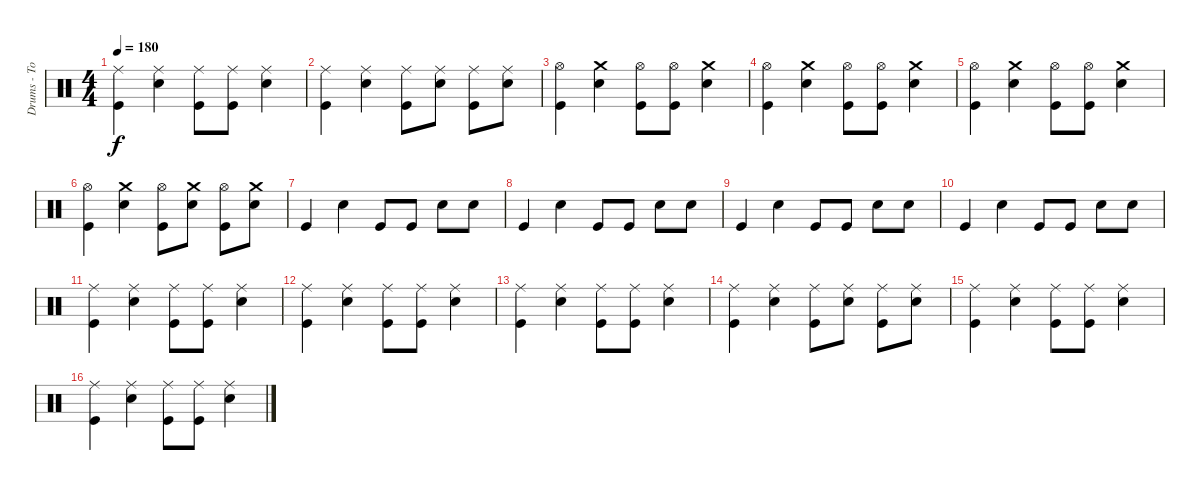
\track ("Drums - Tom" "Drums - To") {instrument percussion}
\staff {score}
\articulation defaults
\ts (4 4)
\tempo 180
\clef neutral
\ks c
("Ride (middle)" "Kick (hit)").4{dy f} ("Ride (middle)" "Snare (hit) 2").4 ("Ride (middle)" "Kick (hit)").8 ("Ride (middle)" "Kick (hit)").8 ("Ride (middle)" "Snare (hit) 2").4 |
("Ride (middle)" "Kick (hit)").4 ("Ride (middle)" "Snare (hit) 2").4 ("Ride (middle)" "Kick (hit)").8 ("Ride (middle)" "Snare (hit) 2").8 ("Ride (middle)" "Kick (hit)").8 ("Ride (middle)" "Snare (hit) 2").8 |
("Hi-Hat (open)" "Kick (hit)").4 ("Crash medium (hit)" "Snare (hit) 2").4 ("Hi-Hat (open)" "Kick (hit)").8 ("Hi-Hat (open)" "Kick (hit)").8 ("Crash medium (hit)" "Snare (hit) 2").4 |
("Hi-Hat (open)" "Kick (hit)").4 ("Crash medium (hit)" "Snare (hit) 2").4 ("Hi-Hat (open)" "Kick (hit)").8 ("Hi-Hat (open)" "Kick (hit)").8 ("Crash medium (hit)" "Snare (hit) 2").4 |
("Hi-Hat (open)" "Kick (hit)").4 ("Crash medium (hit)" "Snare (hit) 2").4 ("Hi-Hat (open)" "Kick (hit)").8 ("Hi-Hat (open)" "Kick (hit)").8 ("Crash medium (hit)" "Snare (hit) 2").4 |
("Hi-Hat (open)" "Kick (hit)").4 ("Crash medium (hit)" "Snare (hit) 2").4 ("Hi-Hat (open)" "Kick (hit)").8 ("Crash medium (hit)" "Snare (hit) 2").8 ("Hi-Hat (open)" "Kick (hit)").8 ("Crash medium (hit)" "Snare (hit) 2").8 |
"Kick (hit)".4 "Snare (hit) 2".4 "Kick (hit)".8 "Kick (hit)".8 "Snare (hit) 2".8 "Snare (hit) 2".8 |
"Kick (hit)".4 "Snare (hit) 2".4 "Kick (hit)".8 "Kick (hit)".8 "Snare (hit) 2".8 "Snare (hit) 2".8 |
"Kick (hit)".4 "Snare (hit) 2".4 "Kick (hit)".8 "Kick (hit)".8 "Snare (hit) 2".8 "Snare (hit) 2".8 |
"Kick (hit)".4 "Snare (hit) 2".4 "Kick (hit)".8 "Kick (hit)".8 "Snare (hit) 2".8 "Snare (hit) 2".8 |
("Ride (middle)" "Kick (hit)").4 ("Ride (middle)" "Snare (hit) 2").4 ("Ride (middle)" "Kick (hit)").8 ("Ride (middle)" "Kick (hit)").8 ("Ride (middle)" "Snare (hit) 2").4 |
("Ride (middle)" "Kick (hit)").4 ("Ride (middle)" "Snare (hit) 2").4 ("Ride (middle)" "Kick (hit)").8 ("Ride (middle)" "Kick (hit)").8 ("Ride (middle)" "Snare (hit) 2").4 |
("Ride (middle)" "Kick (hit)").4 ("Ride (middle)" "Snare (hit) 2").4 ("Ride (middle)" "Kick (hit)").8 ("Ride (middle)" "Kick (hit)").8 ("Ride (middle)" "Snare (hit) 2").4 |
("Ride (middle)" "Kick (hit)").4 ("Ride (middle)" "Snare (hit) 2").4 ("Ride (middle)" "Kick (hit)").8 ("Ride (middle)" "Snare (hit) 2").8 ("Ride (middle)" "Kick (hit)").8 ("Ride (middle)" "Snare (hit) 2").8 |
("Ride (middle)" "Kick (hit)").4 ("Ride (middle)" "Snare (hit) 2").4 ("Ride (middle)" "Kick (hit)").8 ("Ride (middle)" "Kick (hit)").8 ("Ride (middle)" "Snare (hit) 2").4 |
("Ride (middle)" "Kick (hit)").4 ("Ride (middle)" "Snare (hit) 2").4 ("Ride (middle)" "Kick (hit)").8 ("Ride (middle)" "Kick (hit)").8 ("Ride (middle)" "Snare (hit) 2").4
